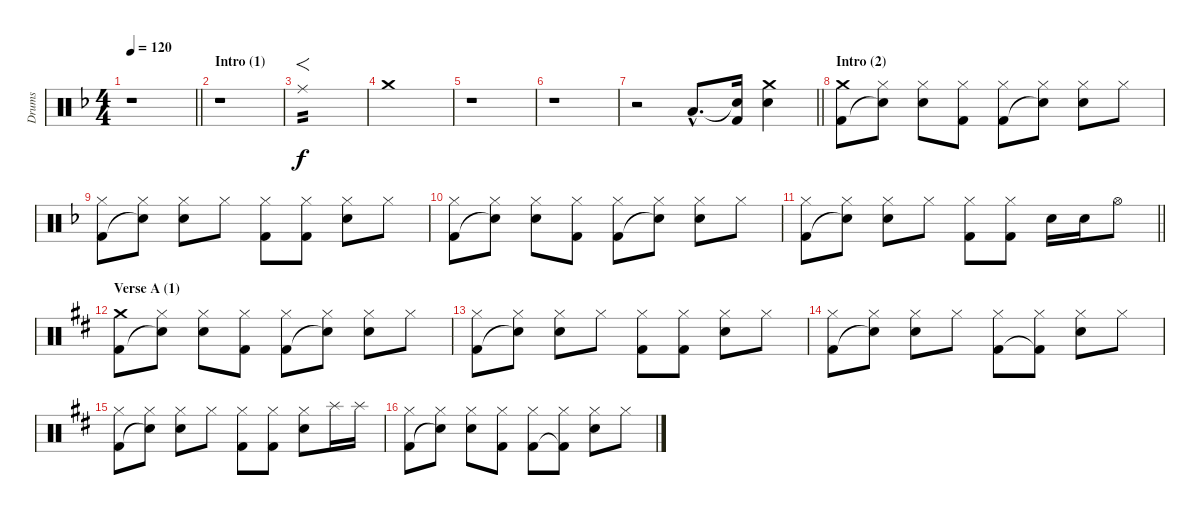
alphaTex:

\track ("Drums" "Drums") {instrument percussion}
\staff {score}
\articulation defaults
\ts (4 4)
\tempo 120
\clef neutral
\barLineRight lightlight
\ks dminor
r.1{dy f} |
\section ("" "Intro (1)")
r.1 |
"Ride (middle)".1{f tp 2} |
"Crash medium (hit)".1 |
r.1 |
r.1 |
\barLineRight lightlight
r.2 "Low Floor Tom (hit)"{hac}.8{d} ("Snare (hit)"{t} "Kick (hit) 2").16 ("Crash medium (hit)" "Electric Snare (hit)").4 |
\section ("" "Intro (2)")
("Crash medium (hit)" "Kick (hit) 2").8 ("Hi-Hat (closed)" "Snare (hit)"{t}).8 ("Hi-Hat (closed)" "Electric Snare (hit)").8 ("Hi-Hat (closed)" "Kick (hit) 2").8 ("Hi-Hat (closed)" "Kick (hit) 2").8 ("Hi-Hat (closed)" "Snare (hit)"{t}).8 ("Hi-Hat (closed)" "Electric Snare (hit)").8 "Hi-Hat (closed)".8 |
("Hi-Hat (closed)" "Kick (hit) 2").8 ("Hi-Hat (closed)" "Snare (hit)"{t}).8 ("Hi-Hat (closed)" "Electric Snare (hit)").8 "Hi-Hat (closed)".8 ("Hi-Hat (closed)" "Kick (hit) 2").8 ("Hi-Hat (closed)" "Kick (hit) 2").8 ("Hi-Hat (closed)" "Electric Snare (hit)").8 "Hi-Hat (closed)".8 |
("Hi-Hat (closed)" "Kick (hit) 2").8 ("Hi-Hat (closed)" "Snare (hit)"{t}).8 ("Hi-Hat (closed)" "Electric Snare (hit)").8 ("Hi-Hat (closed)" "Kick (hit) 2").8 ("Hi-Hat (closed)" "Kick (hit) 2").8 ("Hi-Hat (closed)" "Snare (hit)"{t}).8 ("Hi-Hat (closed)" "Electric Snare (hit)").8 "Hi-Hat (closed)".8 |
\barLineRight lightlight
("Hi-Hat (closed)" "Kick (hit) 2").8 ("Hi-Hat (closed)" "Snare (hit)"{t}).8 ("Hi-Hat (closed)" "Electric Snare (hit)").8 "Hi-Hat (closed)".8 ("Hi-Hat (closed)" "Kick (hit) 2").8 ("Hi-Hat (closed)" "Kick (hit) 2").8 "Electric Snare (hit)".16 "Electric Snare (hit)".16 "Hi-Hat (open)".8 |
\section ("" "Verse A (1)")
\ks d
("Crash medium (hit)" "Kick (hit) 2").8 ("Hi-Hat (closed)" "Snare (hit)"{t}).8 ("Hi-Hat (closed)" "Electric Snare (hit)").8 ("Hi-Hat (closed)" "Kick (hit) 2").8 ("Hi-Hat (closed)" "Kick (hit) 2").8 ("Hi-Hat (closed)" "Snare (hit)"{t}).8 ("Hi-Hat (closed)" "Electric Snare (hit)").8 "Hi-Hat (closed)".8 |
("Hi-Hat (closed)" "Kick (hit) 2").8 ("Hi-Hat (closed)" "Snare (hit)"{t}).8 ("Hi-Hat (closed)" "Electric Snare (hit)").8 "Hi-Hat (closed)".8 ("Hi-Hat (closed)" "Kick (hit) 2").8 ("Hi-Hat (closed)" "Kick (hit) 2").8 ("Hi-Hat (closed)" "Electric Snare (hit)").8 "Hi-Hat (closed)".8 |
("Hi-Hat (closed)" "Kick (hit) 2").8 ("Hi-Hat (closed)" "Snare (hit)"{t}).8 ("Hi-Hat (closed)" "Electric Snare (hit)").8 "Hi-Hat (closed)".8 ("Hi-Hat (closed)" "Kick (hit) 2").8 ("Hi-Hat (closed)" "Kick (hit) 2"{t}).8 ("Hi-Hat (closed)" "Electric Snare (hit)").8 "Hi-Hat (closed)".8 |
("Hi-Hat (closed)" "Kick (hit) 2").8 ("Hi-Hat (closed)" "Snare (hit)"{t}).8 ("Hi-Hat (closed)" "Electric Snare (hit)").8 "Hi-Hat (closed)".8 ("Hi-Hat (closed)" "Kick (hit) 2").8 ("Hi-Hat (closed)" "Kick (hit) 2").8 ("Hi-Hat (closed)" "Electric Snare (hit)").8 "Splash (hit)".16 "Splash (hit)".16 |
("Hi-Hat (closed)" "Kick (hit) 2").8 ("Hi-Hat (closed)" "Snare (hit)"{t}).8 ("Hi-Hat (closed)" "Electric Snare (hit)").8 ("Hi-Hat (closed)" "Kick (hit) 2").8 ("Hi-Hat (closed)" "Kick (hit) 2").8 ("Hi-Hat (closed)" "Kick (hit) 2"{t}).8 ("Hi-Hat (closed)" "Electric Snare (hit)").8 "Hi-Hat (closed)".8
